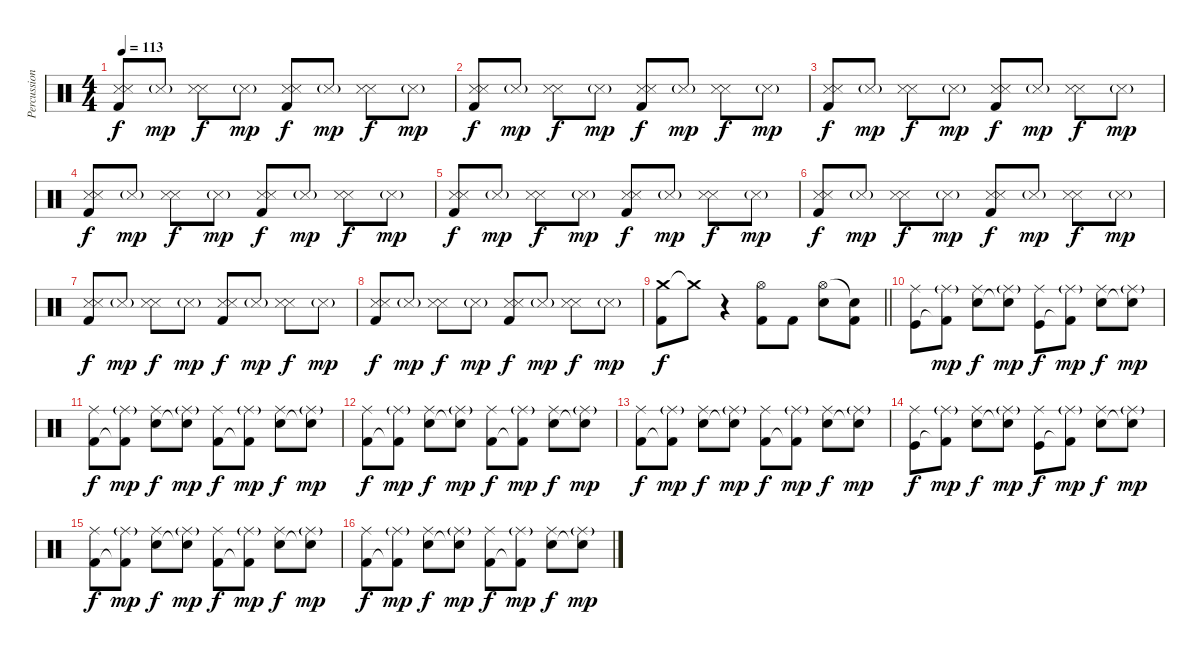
\track ("Percussion" "Percussion") {instrument percussion}
\staff {score}
\articulation defaults
\ts (4 4)
\tempo 113
\clef neutral
\ks c
("Snare (side stick) 3" "Snare (side stick) 3" "Kick (hit) 2").8{dy f} "Snare (side stick) 3"{g}.8{dy mp} ("Snare (side stick) 3" "Snare (side stick) 3").8{dy f} "Snare (side stick) 3"{g}.8{dy mp} ("Snare (side stick) 3" "Snare (side stick) 3" "Kick (hit) 2").8{dy f} "Snare (side stick) 3"{g}.8{dy mp} ("Snare (side stick) 3" "Snare (side stick) 3").8{dy f} "Snare (side stick) 3"{g}.8{dy mp} |
("Snare (side stick) 3" "Snare (side stick) 3" "Kick (hit) 2").8{dy f} "Snare (side stick) 3"{g}.8{dy mp} ("Snare (side stick) 3" "Snare (side stick) 3").8{dy f} "Snare (side stick) 3"{g}.8{dy mp} ("Snare (side stick) 3" "Snare (side stick) 3" "Kick (hit) 2").8{dy f} "Snare (side stick) 3"{g}.8{dy mp} ("Snare (side stick) 3" "Snare (side stick) 3").8{dy f} "Snare (side stick) 3"{g}.8{dy mp} |
("Snare (side stick) 3" "Snare (side stick) 3" "Kick (hit) 2").8{dy f} "Snare (side stick) 3"{g}.8{dy mp} ("Snare (side stick) 3" "Snare (side stick) 3").8{dy f} "Snare (side stick) 3"{g}.8{dy mp} ("Snare (side stick) 3" "Snare (side stick) 3" "Kick (hit) 2").8{dy f} "Snare (side stick) 3"{g}.8{dy mp} ("Snare (side stick) 3" "Snare (side stick) 3").8{dy f} "Snare (side stick) 3"{g}.8{dy mp} |
("Snare (side stick) 3" "Snare (side stick) 3" "Kick (hit) 2").8{dy f} "Snare (side stick) 3"{g}.8{dy mp} ("Snare (side stick) 3" "Snare (side stick) 3").8{dy f} "Snare (side stick) 3"{g}.8{dy mp} ("Snare (side stick) 3" "Snare (side stick) 3" "Kick (hit) 2").8{dy f} "Snare (side stick) 3"{g}.8{dy mp} ("Snare (side stick) 3" "Snare (side stick) 3").8{dy f} "Snare (side stick) 3"{g}.8{dy mp} |
("Snare (side stick) 3" "Snare (side stick) 3" "Kick (hit) 2").8{dy f} "Snare (side stick) 3"{g}.8{dy mp} ("Snare (side stick) 3" "Snare (side stick) 3").8{dy f} "Snare (side stick) 3"{g}.8{dy mp} ("Snare (side stick) 3" "Snare (side stick) 3" "Kick (hit) 2").8{dy f} "Snare (side stick) 3"{g}.8{dy mp} ("Snare (side stick) 3" "Snare (side stick) 3").8{dy f} "Snare (side stick) 3"{g}.8{dy mp} |
("Snare (side stick) 3" "Snare (side stick) 3" "Kick (hit) 2").8{dy f} "Snare (side stick) 3"{g}.8{dy mp} ("Snare (side stick) 3" "Snare (side stick) 3").8{dy f} "Snare (side stick) 3"{g}.8{dy mp} ("Snare (side stick) 3" "Snare (side stick) 3" "Kick (hit) 2").8{dy f} "Snare (side stick) 3"{g}.8{dy mp} ("Snare (side stick) 3" "Snare (side stick) 3").8{dy f} "Snare (side stick) 3"{g}.8{dy mp} |
("Snare (side stick) 3" "Snare (side stick) 3" "Kick (hit) 2").8{dy f} "Snare (side stick) 3"{g}.8{dy mp} ("Snare (side stick) 3" "Snare (side stick) 3").8{dy f} "Snare (side stick) 3"{g}.8{dy mp} ("Snare (side stick) 3" "Snare (side stick) 3" "Kick (hit) 2").8{dy f} "Snare (side stick) 3"{g}.8{dy mp} ("Snare (side stick) 3" "Snare (side stick) 3").8{dy f} "Snare (side stick) 3"{g}.8{dy mp} |
("Snare (side stick) 3" "Snare (side stick) 3" "Kick (hit) 2").8{dy f} "Snare (side stick) 3"{g}.8{dy mp} ("Snare (side stick) 3" "Snare (side stick) 3").8{dy f} "Snare (side stick) 3"{g}.8{dy mp} ("Snare (side stick) 3" "Snare (side stick) 3" "Kick (hit) 2").8{dy f} "Snare (side stick) 3"{g}.8{dy mp} ("Snare (side stick) 3" "Snare (side stick) 3").8{dy f} "Snare (side stick) 3"{g}.8{dy mp} |
\barLineRight lightlight
("Crash medium (hit)" "Kick (hit) 2").8{dy f} "Crash medium (hit)"{t}.8 r.4 ("Hi-Hat (open)" "Kick (hit) 2").8 "Kick (hit) 2".8 ("Hi-Hat (open)" "Snare (hit) 2").8 ("Snare (hit) 2"{t} "Kick (hit) 2").8 |
("Ride (middle)" "Kick (hit)").8 ("Ride (middle)"{g} "Kick (hit) 2"{t}).8{dy mp} ("Ride (middle)" "Snare (hit) 2").8{dy f} ("Ride (middle)"{g} "Snare (hit) 2"{t}).8{dy mp} ("Ride (middle)" "Kick (hit)").8{dy f} ("Ride (middle)"{g} "Kick (hit) 2"{t}).8{dy mp} ("Ride (middle)" "Snare (hit) 2").8{dy f} ("Ride (middle)"{g} "Snare (hit) 2"{t}).8{dy mp} |
("Ride (middle)" "Kick (hit) 2").8{dy f} ("Ride (middle)"{g} "Kick (hit) 2"{t}).8{dy mp} ("Ride (middle)" "Snare (hit) 2").8{dy f} ("Ride (middle)"{g} "Snare (hit) 2"{t}).8{dy mp} ("Ride (middle)" "Kick (hit) 2").8{dy f} ("Ride (middle)"{g} "Kick (hit) 2"{t}).8{dy mp} ("Ride (middle)" "Snare (hit) 2").8{dy f} ("Ride (middle)"{g} "Snare (hit) 2"{t}).8{dy mp} |
("Ride (middle)" "Kick (hit) 2").8{dy f} ("Ride (middle)"{g} "Kick (hit) 2"{t}).8{dy mp} ("Ride (middle)" "Snare (hit) 2").8{dy f} ("Ride (middle)"{g} "Snare (hit) 2"{t}).8{dy mp} ("Ride (middle)" "Kick (hit) 2").8{dy f} ("Ride (middle)"{g} "Kick (hit) 2"{t}).8{dy mp} ("Ride (middle)" "Snare (hit) 2").8{dy f} ("Ride (middle)"{g} "Snare (hit) 2"{t}).8{dy mp} |
("Ride (middle)" "Kick (hit) 2").8{dy f} ("Ride (middle)"{g} "Kick (hit) 2"{t}).8{dy mp} ("Ride (middle)" "Snare (hit) 2").8{dy f} ("Ride (middle)"{g} "Snare (hit) 2"{t}).8{dy mp} ("Ride (middle)" "Kick (hit) 2").8{dy f} ("Ride (middle)"{g} "Kick (hit) 2"{t}).8{dy mp} ("Ride (middle)" "Snare (hit) 2").8{dy f} ("Ride (middle)"{g} "Snare (hit) 2"{t}).8{dy mp} |
("Ride (middle)" "Kick (hit)").8{dy f} ("Ride (middle)"{g} "Kick (hit) 2"{t}).8{dy mp} ("Ride (middle)" "Snare (hit) 2").8{dy f} ("Ride (middle)"{g} "Snare (hit) 2"{t}).8{dy mp} ("Ride (middle)" "Kick (hit)").8{dy f} ("Ride (middle)"{g} "Kick (hit) 2"{t}).8{dy mp} ("Ride (middle)" "Snare (hit) 2").8{dy f} ("Ride (middle)"{g} "Snare (hit) 2"{t}).8{dy mp} |
("Ride (middle)" "Kick (hit) 2").8{dy f} ("Ride (middle)"{g} "Kick (hit) 2"{t}).8{dy mp} ("Ride (middle)" "Snare (hit) 2").8{dy f} ("Ride (middle)"{g} "Snare (hit) 2"{t}).8{dy mp} ("Ride (middle)" "Kick (hit) 2").8{dy f} ("Ride (middle)"{g} "Kick (hit) 2"{t}).8{dy mp} ("Ride (middle)" "Snare (hit) 2").8{dy f} ("Ride (middle)"{g} "Snare (hit) 2"{t}).8{dy mp} |
("Ride (middle)" "Kick (hit) 2").8{dy f} ("Ride (middle)"{g} "Kick (hit) 2"{t}).8{dy mp} ("Ride (middle)" "Snare (hit) 2").8{dy f} ("Ride (middle)"{g} "Snare (hit) 2"{t}).8{dy mp} ("Ride (middle)" "Kick (hit) 2").8{dy f} ("Ride (middle)"{g} "Kick (hit) 2"{t}).8{dy mp} ("Ride (middle)" "Snare (hit) 2").8{dy f} ("Ride (middle)"{g} "Snare (hit) 2"{t}).8{dy mp}
